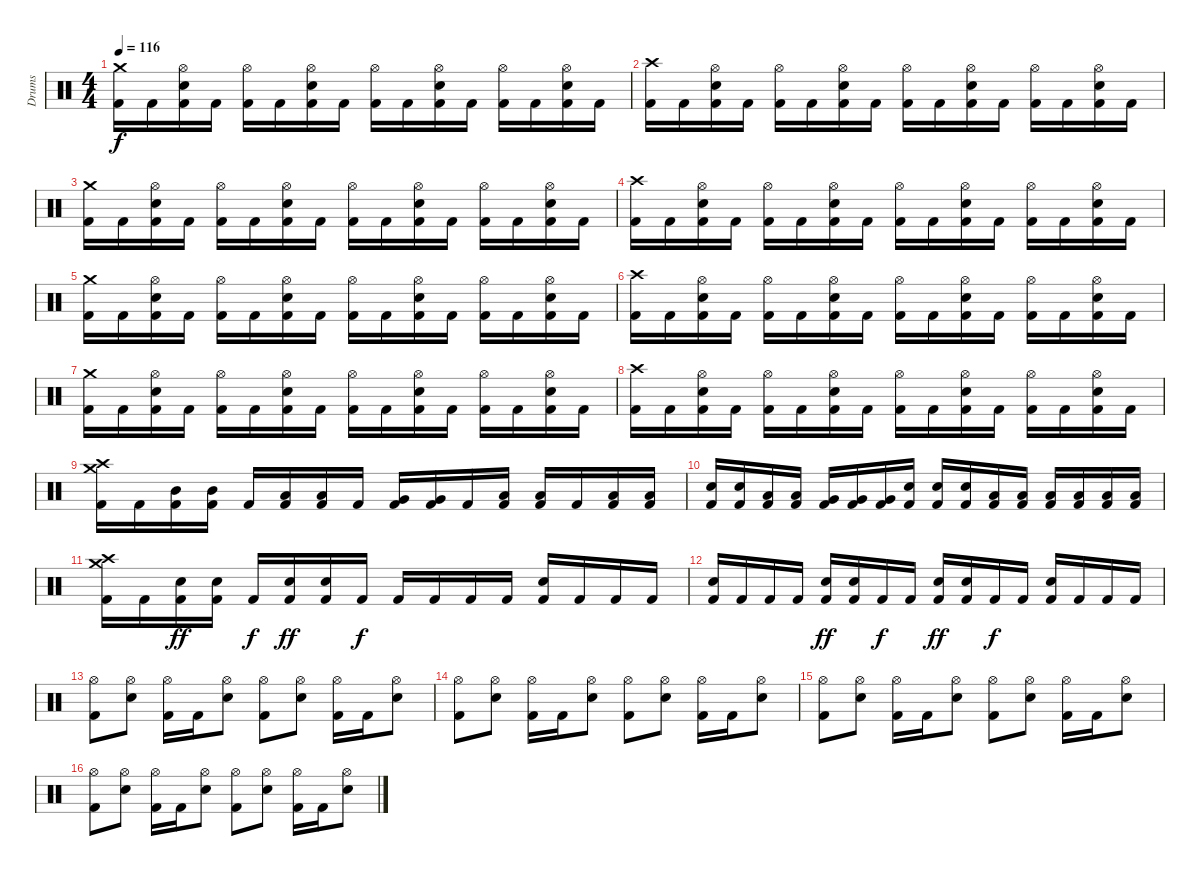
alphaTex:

\track ("Drums" "Drums") {instrument percussion}
\staff {score}
\articulation defaults
\ts (4 4)
\tempo 116
\clef neutral
\ks c
("Crash medium (hit)" "Kick (hit) 2").16{dy f} "Kick (hit) 2".16 ("Hi-Hat (open)" "Electric Snare (hit)" "Kick (hit) 2").16 "Kick (hit) 2".16 ("Hi-Hat (open)" "Kick (hit) 2").16 "Kick (hit) 2".16 ("Hi-Hat (open)" "Electric Snare (hit)" "Kick (hit) 2").16 "Kick (hit) 2".16 ("Hi-Hat (open)" "Kick (hit) 2").16 "Kick (hit) 2".16 ("Hi-Hat (open)" "Electric Snare (hit)" "Kick (hit) 2").16 "Kick (hit) 2".16 ("Hi-Hat (open)" "Kick (hit) 2").16 "Kick (hit) 2".16 ("Hi-Hat (open)" "Electric Snare (hit)" "Kick (hit) 2").16 "Kick (hit) 2".16 |
("Crash high (hit)" "Kick (hit) 2").16 "Kick (hit) 2".16 ("Hi-Hat (open)" "Electric Snare (hit)" "Kick (hit) 2").16 "Kick (hit) 2".16 ("Hi-Hat (open)" "Kick (hit) 2").16 "Kick (hit) 2".16 ("Hi-Hat (open)" "Electric Snare (hit)" "Kick (hit) 2").16 "Kick (hit) 2".16 ("Hi-Hat (open)" "Kick (hit) 2").16 "Kick (hit) 2".16 ("Hi-Hat (open)" "Electric Snare (hit)" "Kick (hit) 2").16 "Kick (hit) 2".16 ("Hi-Hat (open)" "Kick (hit) 2").16 "Kick (hit) 2".16 ("Hi-Hat (open)" "Electric Snare (hit)" "Kick (hit) 2").16 "Kick (hit) 2".16 |
("Crash medium (hit)" "Kick (hit) 2").16 "Kick (hit) 2".16 ("Hi-Hat (open)" "Electric Snare (hit)" "Kick (hit) 2").16 "Kick (hit) 2".16 ("Hi-Hat (open)" "Kick (hit) 2").16 "Kick (hit) 2".16 ("Hi-Hat (open)" "Electric Snare (hit)" "Kick (hit) 2").16 "Kick (hit) 2".16 ("Hi-Hat (open)" "Kick (hit) 2").16 "Kick (hit) 2".16 ("Hi-Hat (open)" "Electric Snare (hit)" "Kick (hit) 2").16 "Kick (hit) 2".16 ("Hi-Hat (open)" "Kick (hit) 2").16 "Kick (hit) 2".16 ("Hi-Hat (open)" "Electric Snare (hit)" "Kick (hit) 2").16 "Kick (hit) 2".16 |
("Crash high (hit)" "Kick (hit) 2").16 "Kick (hit) 2".16 ("Hi-Hat (open)" "Electric Snare (hit)" "Kick (hit) 2").16 "Kick (hit) 2".16 ("Hi-Hat (open)" "Kick (hit) 2").16 "Kick (hit) 2".16 ("Hi-Hat (open)" "Electric Snare (hit)" "Kick (hit) 2").16 "Kick (hit) 2".16 ("Hi-Hat (open)" "Kick (hit) 2").16 "Kick (hit) 2".16 ("Hi-Hat (open)" "Electric Snare (hit)" "Kick (hit) 2").16 "Kick (hit) 2".16 ("Hi-Hat (open)" "Kick (hit) 2").16 "Kick (hit) 2".16 ("Hi-Hat (open)" "Electric Snare (hit)" "Kick (hit) 2").16 "Kick (hit) 2".16 |
("Crash medium (hit)" "Kick (hit) 2").16 "Kick (hit) 2".16 ("Hi-Hat (open)" "Electric Snare (hit)" "Kick (hit) 2").16 "Kick (hit) 2".16 ("Hi-Hat (open)" "Kick (hit) 2").16 "Kick (hit) 2".16 ("Hi-Hat (open)" "Electric Snare (hit)" "Kick (hit) 2").16 "Kick (hit) 2".16 ("Hi-Hat (open)" "Kick (hit) 2").16 "Kick (hit) 2".16 ("Hi-Hat (open)" "Electric Snare (hit)" "Kick (hit) 2").16 "Kick (hit) 2".16 ("Hi-Hat (open)" "Kick (hit) 2").16 "Kick (hit) 2".16 ("Hi-Hat (open)" "Electric Snare (hit)" "Kick (hit) 2").16 "Kick (hit) 2".16 |
("Crash high (hit)" "Kick (hit) 2").16 "Kick (hit) 2".16 ("Hi-Hat (open)" "Electric Snare (hit)" "Kick (hit) 2").16 "Kick (hit) 2".16 ("Hi-Hat (open)" "Kick (hit) 2").16 "Kick (hit) 2".16 ("Hi-Hat (open)" "Electric Snare (hit)" "Kick (hit) 2").16 "Kick (hit) 2".16 ("Hi-Hat (open)" "Kick (hit) 2").16 "Kick (hit) 2".16 ("Hi-Hat (open)" "Electric Snare (hit)" "Kick (hit) 2").16 "Kick (hit) 2".16 ("Hi-Hat (open)" "Kick (hit) 2").16 "Kick (hit) 2".16 ("Hi-Hat (open)" "Electric Snare (hit)" "Kick (hit) 2").16 "Kick (hit) 2".16 |
("Crash medium (hit)" "Kick (hit) 2").16 "Kick (hit) 2".16 ("Hi-Hat (open)" "Electric Snare (hit)" "Kick (hit) 2").16 "Kick (hit) 2".16 ("Hi-Hat (open)" "Kick (hit) 2").16 "Kick (hit) 2".16 ("Hi-Hat (open)" "Electric Snare (hit)" "Kick (hit) 2").16 "Kick (hit) 2".16 ("Hi-Hat (open)" "Kick (hit) 2").16 "Kick (hit) 2".16 ("Hi-Hat (open)" "Electric Snare (hit)" "Kick (hit) 2").16 "Kick (hit) 2".16 ("Hi-Hat (open)" "Kick (hit) 2").16 "Kick (hit) 2".16 ("Hi-Hat (open)" "Electric Snare (hit)" "Kick (hit) 2").16 "Kick (hit) 2".16 |
("Crash high (hit)" "Kick (hit) 2").16 "Kick (hit) 2".16 ("Hi-Hat (open)" "Electric Snare (hit)" "Kick (hit) 2").16 "Kick (hit) 2".16 ("Hi-Hat (open)" "Kick (hit) 2").16 "Kick (hit) 2".16 ("Hi-Hat (open)" "Electric Snare (hit)" "Kick (hit) 2").16 "Kick (hit) 2".16 ("Hi-Hat (open)" "Kick (hit) 2").16 "Kick (hit) 2".16 ("Hi-Hat (open)" "Electric Snare (hit)" "Kick (hit) 2").16 "Kick (hit) 2".16 ("Hi-Hat (open)" "Kick (hit) 2").16 "Kick (hit) 2".16 ("Hi-Hat (open)" "Electric Snare (hit)" "Kick (hit) 2").16 "Kick (hit) 2".16 |
("Crash medium (hit)" "Crash high (hit)" "Kick (hit) 2").16 "Kick (hit) 2".16 ("Mid Tom (hit)" "Kick (hit) 2").16 ("Mid Tom (hit)" "Kick (hit) 2").16 "Kick (hit) 2".16 ("Low Tom (hit)" "Kick (hit) 2").16 ("Low Tom (hit)" "Kick (hit) 2").16 "Kick (hit) 2".16 ("Very Low Tom (hit)" "Kick (hit) 2").16 ("Very Low Tom (hit)" "Kick (hit) 2").16 "Kick (hit) 2".16 ("Low Floor Tom (hit)" "Kick (hit) 2").16 ("Low Floor Tom (hit)" "Kick (hit) 2").16 "Kick (hit) 2".16 ("Low Floor Tom (hit)" "Kick (hit) 2").16 ("Low Floor Tom (hit)" "Kick (hit) 2").16 |
("Electric Snare (hit)" "Kick (hit) 2").16 ("Electric Snare (hit)" "Kick (hit) 2").16 ("Low Tom (hit)" "Kick (hit) 2").16 ("Low Tom (hit)" "Kick (hit) 2").16 ("Very Low Tom (hit)" "Kick (hit) 2").16 ("Very Low Tom (hit)" "Kick (hit) 2").16 ("Very Low Tom (hit)" "Kick (hit) 2").16 ("Electric Snare (hit)" "Kick (hit) 2").16 ("Electric Snare (hit)" "Kick (hit) 2").16 ("Electric Snare (hit)" "Kick (hit) 2").16 ("Low Floor Tom (hit)" "Kick (hit) 2").16 ("Low Floor Tom (hit)" "Kick (hit) 2").16 ("Low Floor Tom (hit)" "Kick (hit) 2").16 ("Low Floor Tom (hit)" "Kick (hit) 2").16 ("Low Floor Tom (hit)" "Kick (hit) 2").16 ("Low Floor Tom (hit)" "Kick (hit) 2").16 |
("Crash medium (hit)" "Crash high (hit)" "Kick (hit) 2").16 "Kick (hit) 2".16 ("Electric Snare (hit)" "Kick (hit) 2").16{dy ff} ("Electric Snare (hit)" "Kick (hit) 2").16 "Kick (hit) 2".16{dy f} ("Electric Snare (hit)" "Kick (hit) 2").16{dy ff} ("Electric Snare (hit)" "Kick (hit) 2").16 "Kick (hit) 2".16{dy f} "Kick (hit) 2".16 "Kick (hit) 2".16 "Kick (hit) 2".16 "Kick (hit) 2".16 ("Electric Snare (hit)" "Kick (hit) 2").16 "Kick (hit) 2".16 "Kick (hit) 2".16 "Kick (hit) 2".16 |
("Electric Snare (hit)" "Kick (hit) 2").16 "Kick (hit) 2".16 "Kick (hit) 2".16 "Kick (hit) 2".16 ("Electric Snare (hit)" "Kick (hit) 2").16{dy ff} ("Electric Snare (hit)" "Kick (hit) 2").16 "Kick (hit) 2".16{dy f} "Kick (hit) 2".16 ("Electric Snare (hit)" "Kick (hit) 2").16{dy ff} ("Electric Snare (hit)" "Kick (hit) 2").16 "Kick (hit) 2".16{dy f} "Kick (hit) 2".16 ("Electric Snare (hit)" "Kick (hit) 2").16 "Kick (hit) 2".16 "Kick (hit) 2".16 "Kick (hit) 2".16 |
("Hi-Hat (open)" "Kick (hit) 2").8 ("Hi-Hat (open)" "Electric Snare (hit)").8 ("Hi-Hat (open)" "Kick (hit) 2").16 "Kick (hit) 2".16 ("Hi-Hat (open)" "Electric Snare (hit)").8 ("Hi-Hat (open)" "Kick (hit) 2").8 ("Hi-Hat (open)" "Electric Snare (hit)").8 ("Hi-Hat (open)" "Kick (hit) 2").16 "Kick (hit) 2".16 ("Hi-Hat (open)" "Electric Snare (hit)").8 |
("Hi-Hat (open)" "Kick (hit) 2").8 ("Hi-Hat (open)" "Electric Snare (hit)").8 ("Hi-Hat (open)" "Kick (hit) 2").16 "Kick (hit) 2".16 ("Hi-Hat (open)" "Electric Snare (hit)").8 ("Hi-Hat (open)" "Kick (hit) 2").8 ("Hi-Hat (open)" "Electric Snare (hit)").8 ("Hi-Hat (open)" "Kick (hit) 2").16 "Kick (hit) 2".16 ("Hi-Hat (open)" "Electric Snare (hit)").8 |
("Hi-Hat (open)" "Kick (hit) 2").8 ("Hi-Hat (open)" "Electric Snare (hit)").8 ("Hi-Hat (open)" "Kick (hit) 2").16 "Kick (hit) 2".16 ("Hi-Hat (open)" "Electric Snare (hit)").8 ("Hi-Hat (open)" "Kick (hit) 2").8 ("Hi-Hat (open)" "Electric Snare (hit)").8 ("Hi-Hat (open)" "Kick (hit) 2").16 "Kick (hit) 2".16 ("Hi-Hat (open)" "Electric Snare (hit)").8 |
("Hi-Hat (open)" "Kick (hit) 2").8 ("Hi-Hat (open)" "Electric Snare (hit)").8 ("Hi-Hat (open)" "Kick (hit) 2").16 "Kick (hit) 2".16 ("Hi-Hat (open)" "Electric Snare (hit)").8 ("Hi-Hat (open)" "Kick (hit) 2").8 ("Hi-Hat (open)" "Electric Snare (hit)").8 ("Hi-Hat (open)" "Kick (hit) 2").16 "Kick (hit) 2".16 ("Hi-Hat (open)" "Electric Snare (hit)").8
